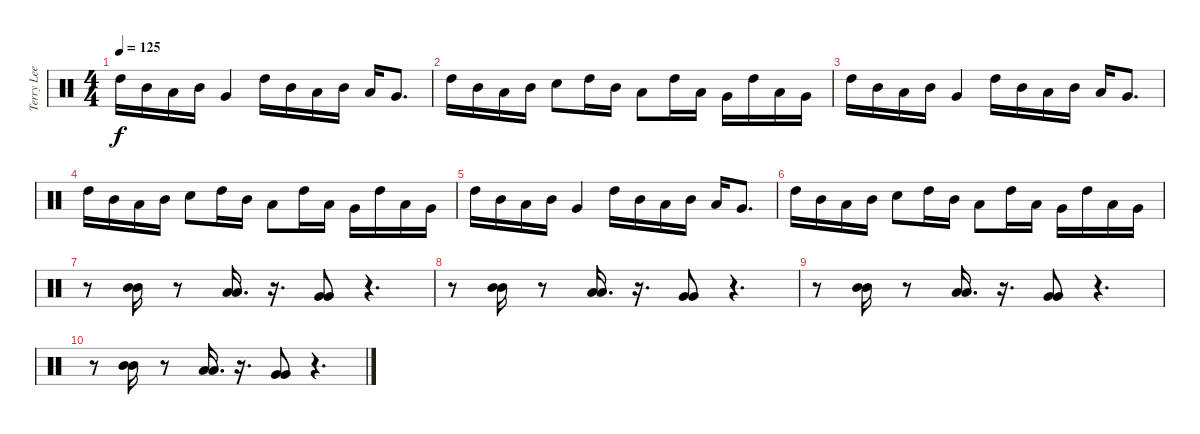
\track ("Terry Lee Miall" "Terry Lee ") {instrument percussion}
\staff {score}
\articulation defaults
\ts (4 4)
\tempo 125
\clef neutral
\ks c "High Tom (hit)".16{dy f} "Mid Tom (hit)".16 "Low Tom (hit)".16 "Mid Tom (hit)".16 "Very Low Tom (hit)".4 "High Tom (hit)".16 "Mid Tom (hit)".16 "Low Tom (hit)".16 "Mid Tom (hit)".16 "Low Tom (hit)".16 "Very Low Tom (hit)".8{d}
|
"High Tom (hit)".16 "Mid Tom (hit)".16 "Low Tom (hit)".16 "Mid Tom (hit)".16 "Electric Snare (hit)".8 "High Tom (hit)".16 "Mid Tom (hit)".16 "Low Tom (hit)".8 "High Tom (hit)".16 "Low Tom (hit)".16 "Very Low Tom (hit)".16 "High Tom (hit)".16 "Low Tom (hit)".16 "Very Low Tom (hit)".16 |
"High Tom (hit)".16 "Mid Tom (hit)".16 "Low Tom (hit)".16 "Mid Tom (hit)".16 "Very Low Tom (hit)".4 "High Tom (hit)".16 "Mid Tom (hit)".16 "Low Tom (hit)".16 "Mid Tom (hit)".16 "Low Tom (hit)".16 "Very Low Tom (hit)".8{d} |
"High Tom (hit)".16 "Mid Tom (hit)".16 "Low Tom (hit)".16 "Mid Tom (hit)".16 "Electric Snare (hit)".8 "High Tom (hit)".16 "Mid Tom (hit)".16 "Low Tom (hit)".8 "High Tom (hit)".16 "Low Tom (hit)".16 "Very Low Tom (hit)".16 "High Tom (hit)".16 "Low Tom (hit)".16 "Very Low Tom (hit)".16 |
"High Tom (hit)".16 "Mid Tom (hit)".16 "Low Tom (hit)".16 "Mid Tom (hit)".16 "Very Low Tom (hit)".4 "High Tom (hit)".16 "Mid Tom (hit)".16 "Low Tom (hit)".16 "Mid Tom (hit)".16 "Low Tom (hit)".16 "Very Low Tom (hit)".8{d} |
"High Tom (hit)".16 "Mid Tom (hit)".16 "Low Tom (hit)".16 "Mid Tom (hit)".16 "Electric Snare (hit)".8 "High Tom (hit)".16 "Mid Tom (hit)".16 "Low Tom (hit)".8 "High Tom (hit)".16 "Low Tom (hit)".16 "Very Low Tom (hit)".16 "High Tom (hit)".16 "Low Tom (hit)".16 "Very Low Tom (hit)".16 |
r.8 ("Mid Tom (hit)" "Mid Tom (hit)").16 r.8 ("Low Tom (hit)" "Low Tom (hit)").16{d} r.16{d} ("Very Low Tom (hit)" "Very Low Tom (hit)").8 r.4{d} |
r.8 ("Mid Tom (hit)" "Mid Tom (hit)").16 r.8 ("Low Tom (hit)" "Low Tom (hit)").16{d} r.16{d} ("Very Low Tom (hit)" "Very Low Tom (hit)").8 r.4{d} |
r.8 ("Mid Tom (hit)" "Mid Tom (hit)").16 r.8 ("Low Tom (hit)" "Low Tom (hit)").16{d} r.16{d} ("Very Low Tom (hit)" "Very Low Tom (hit)").8 r.4{d} |
r.8 ("Mid Tom (hit)" "Mid Tom (hit)").16 r.8 ("Low Tom (hit)" "Low Tom (hit)").16{d} r.16{d} ("Very Low Tom (hit)" "Very Low Tom (hit)").8 r.4{d}
